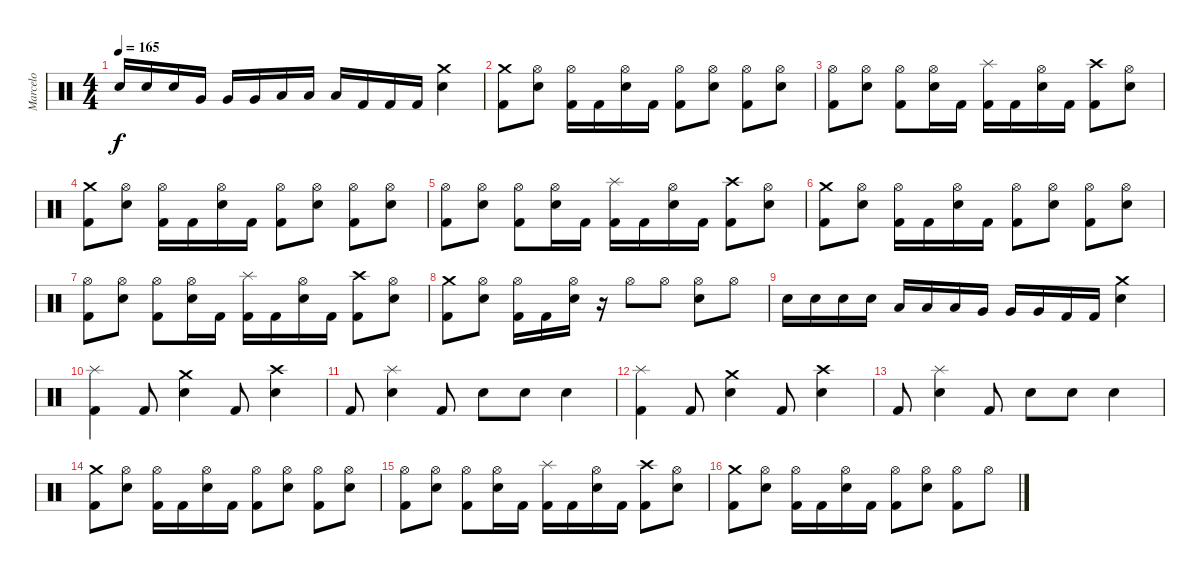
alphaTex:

\track ("Marcelo" "Marcelo") {instrument percussion}
\staff {score}
\articulation defaults
\ts (4 4)
\tempo 165
\clef neutral
\ks c "Electric Snare (hit)".16{dy f} "Electric Snare (hit)".16 "Electric Snare (hit)".16 "Very Low Tom (hit)".16 "Very Low Tom (hit)".16 "Very Low Tom (hit)".16 "Low Floor Tom (hit)".16 "Low Floor Tom (hit)".16 "Low Floor Tom (hit)".16 "Kick (hit) 2".16 "Kick (hit) 2".16 "Kick (hit) 2".16
("Crash medium (hit)" "Electric Snare (hit)").4 |
("Crash medium (hit)" "Kick (hit) 2").8 ("Hi-Hat (open)" "Electric Snare (hit)").8 ("Hi-Hat (open)" "Kick (hit) 2").16 "Kick (hit) 2".16 ("Hi-Hat (open)" "Electric Snare (hit)").16 "Kick (hit) 2".16 ("Hi-Hat (open)" "Kick (hit) 2").8 ("Hi-Hat (open)" "Electric Snare (hit)").8 ("Hi-Hat (open)" "Kick (hit) 2").8 ("Hi-Hat (open)" "Electric Snare (hit)").8 |
("Hi-Hat (open)" "Kick (hit) 2").8 ("Hi-Hat (open)" "Electric Snare (hit)").8 ("Hi-Hat (open)" "Kick (hit) 2").8 ("Hi-Hat (open)" "Electric Snare (hit)").16 "Kick (hit) 2".16 ("Splash (hit)" "Kick (hit) 2").16 "Kick (hit) 2".16 ("Hi-Hat (open)" "Electric Snare (hit)").16 "Kick (hit) 2".16 ("Crash high (hit)" "Kick (hit) 2").8 ("Hi-Hat (open)" "Electric Snare (hit)").8 |
("Crash medium (hit)" "Kick (hit) 2").8 ("Hi-Hat (open)" "Electric Snare (hit)").8 ("Hi-Hat (open)" "Kick (hit) 2").16 "Kick (hit) 2".16 ("Hi-Hat (open)" "Electric Snare (hit)").16 "Kick (hit) 2".16 ("Hi-Hat (open)" "Kick (hit) 2").8 ("Hi-Hat (open)" "Electric Snare (hit)").8 ("Hi-Hat (open)" "Kick (hit) 2").8 ("Hi-Hat (open)" "Electric Snare (hit)").8 |
("Hi-Hat (open)" "Kick (hit) 2").8 ("Hi-Hat (open)" "Electric Snare (hit)").8 ("Hi-Hat (open)" "Kick (hit) 2").8 ("Hi-Hat (open)" "Electric Snare (hit)").16 "Kick (hit) 2".16 ("Splash (hit)" "Kick (hit) 2").16 "Kick (hit) 2".16 ("Hi-Hat (open)" "Electric Snare (hit)").16 "Kick (hit) 2".16 ("Crash high (hit)" "Kick (hit) 2").8 ("Hi-Hat (open)" "Electric Snare (hit)").8 |
("Crash medium (hit)" "Kick (hit) 2").8 ("Hi-Hat (open)" "Electric Snare (hit)").8 ("Hi-Hat (open)" "Kick (hit) 2").16 "Kick (hit) 2".16 ("Hi-Hat (open)" "Electric Snare (hit)").16 "Kick (hit) 2".16 ("Hi-Hat (open)" "Kick (hit) 2").8 ("Hi-Hat (open)" "Electric Snare (hit)").8 ("Hi-Hat (open)" "Kick (hit) 2").8 ("Hi-Hat (open)" "Electric Snare (hit)").8 |
("Hi-Hat (open)" "Kick (hit) 2").8 ("Hi-Hat (open)" "Electric Snare (hit)").8 ("Hi-Hat (open)" "Kick (hit) 2").8 ("Hi-Hat (open)" "Electric Snare (hit)").16 "Kick (hit) 2".16 ("Splash (hit)" "Kick (hit) 2").16 "Kick (hit) 2".16 ("Hi-Hat (open)" "Electric Snare (hit)").16 "Kick (hit) 2".16 ("Crash high (hit)" "Kick (hit) 2").8 ("Hi-Hat (open)" "Electric Snare (hit)").8 |
("Crash medium (hit)" "Kick (hit) 2").8 ("Hi-Hat (open)" "Electric Snare (hit)").8 ("Hi-Hat (open)" "Kick (hit) 2").16 "Kick (hit) 2".16 ("Hi-Hat (open)" "Electric Snare (hit)").16 r.16 "Hi-Hat (open)".8 "Hi-Hat (open)".8 ("Hi-Hat (open)" "Electric Snare (hit)").8 "Hi-Hat (open)".8 |
"Electric Snare (hit)".16 "Electric Snare (hit)".16 "Electric Snare (hit)".16 "Electric Snare (hit)".16 "Low Tom (hit)".16 "Low Tom (hit)".16 "Low Tom (hit)".16 "Very Low Tom (hit)".16 "Very Low Tom (hit)".16 "Very Low Tom (hit)".16 "Kick (hit) 2".16 "Kick (hit) 2".16 ("Crash medium (hit)" "Electric Snare (hit)").4 |
("Splash (hit)" "Kick (hit) 2").4 "Kick (hit) 2".8 ("Crash medium (hit)" "Electric Snare (hit)").4 "Kick (hit) 2".8 ("Crash high (hit)" "Electric Snare (hit)").4 |
"Kick (hit) 2".8 ("Splash (hit)" "Electric Snare (hit)").4 "Kick (hit) 2".8 "Electric Snare (hit)".8 "Electric Snare (hit)".8 "Electric Snare (hit)".4 |
("Splash (hit)" "Kick (hit) 2").4 "Kick (hit) 2".8 ("Crash medium (hit)" "Electric Snare (hit)").4 "Kick (hit) 2".8 ("Crash high (hit)" "Electric Snare (hit)").4 |
"Kick (hit) 2".8 ("Splash (hit)" "Electric Snare (hit)").4 "Kick (hit) 2".8 "Electric Snare (hit)".8 "Electric Snare (hit)".8 "Electric Snare (hit)".4 |
("Crash medium (hit)" "Kick (hit) 2").8 ("Hi-Hat (open)" "Electric Snare (hit)").8 ("Hi-Hat (open)" "Kick (hit) 2").16 "Kick (hit) 2".16 ("Hi-Hat (open)" "Electric Snare (hit)").16 "Kick (hit) 2".16 ("Hi-Hat (open)" "Kick (hit) 2").8 ("Hi-Hat (open)" "Electric Snare (hit)").8 ("Hi-Hat (open)" "Kick (hit) 2").8 ("Hi-Hat (open)" "Electric Snare (hit)").8 |
("Hi-Hat (open)" "Kick (hit) 2").8 ("Hi-Hat (open)" "Electric Snare (hit)").8 ("Hi-Hat (open)" "Kick (hit) 2").8 ("Hi-Hat (open)" "Electric Snare (hit)").16 "Kick (hit) 2".16 ("Splash (hit)" "Kick (hit) 2").16 "Kick (hit) 2".16 ("Hi-Hat (open)" "Electric Snare (hit)").16 "Kick (hit) 2".16 ("Crash high (hit)" "Kick (hit) 2").8 ("Hi-Hat (open)" "Electric Snare (hit)").8 |
("Crash medium (hit)" "Kick (hit) 2").8 ("Hi-Hat (open)" "Electric Snare (hit)").8 ("Hi-Hat (open)" "Kick (hit) 2").16 "Kick (hit) 2".16 ("Hi-Hat (open)" "Electric Snare (hit)").16 "Kick (hit) 2".16 ("Hi-Hat (open)" "Kick (hit) 2").8 ("Hi-Hat (open)" "Electric Snare (hit)").8 ("Hi-Hat (open)" "Kick (hit) 2").8 "Hi-Hat (open)".8
